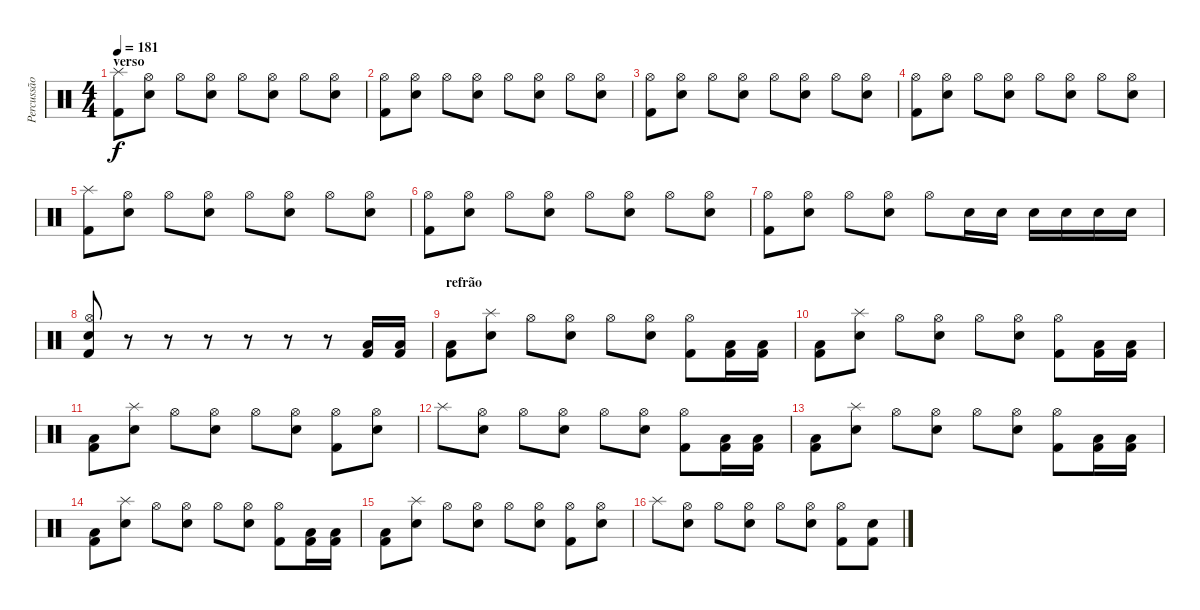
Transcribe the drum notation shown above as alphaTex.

\track ("Percussão" "Percussão") {instrument percussion}
\staff {score}
\articulation defaults
\ts (4 4)
\section ("" "verso")
\tempo 181
\clef neutral
\ks c
("Splash (hit)" "Kick (hit) 2").8{dy f} ("Hi-Hat (open)" "Snare (hit) 2").8 "Hi-Hat (open)".8 ("Hi-Hat (open)" "Snare (hit) 2").8 "Hi-Hat (open)".8 ("Hi-Hat (open)" "Snare (hit) 2").8 "Hi-Hat (open)".8 ("Hi-Hat (open)" "Snare (hit) 2").8 |
("Hi-Hat (open)" "Kick (hit) 2").8 ("Hi-Hat (open)" "Snare (hit) 2").8 "Hi-Hat (open)".8 ("Hi-Hat (open)" "Snare (hit) 2").8 "Hi-Hat (open)".8 ("Hi-Hat (open)" "Snare (hit) 2").8 "Hi-Hat (open)".8 ("Hi-Hat (open)" "Snare (hit) 2").8 |
("Hi-Hat (open)" "Kick (hit) 2").8 ("Hi-Hat (open)" "Snare (hit) 2").8 "Hi-Hat (open)".8 ("Hi-Hat (open)" "Snare (hit) 2").8 "Hi-Hat (open)".8 ("Hi-Hat (open)" "Snare (hit) 2").8 "Hi-Hat (open)".8 ("Hi-Hat (open)" "Snare (hit) 2").8 |
("Hi-Hat (open)" "Kick (hit) 2").8 ("Hi-Hat (open)" "Snare (hit) 2").8 "Hi-Hat (open)".8 ("Hi-Hat (open)" "Snare (hit) 2").8 "Hi-Hat (open)".8 ("Hi-Hat (open)" "Snare (hit) 2").8 "Hi-Hat (open)".8 ("Hi-Hat (open)" "Snare (hit) 2").8 |
("Splash (hit)" "Kick (hit) 2").8 ("Hi-Hat (open)" "Snare (hit) 2").8 "Hi-Hat (open)".8 ("Hi-Hat (open)" "Snare (hit) 2").8 "Hi-Hat (open)".8 ("Hi-Hat (open)" "Snare (hit) 2").8 "Hi-Hat (open)".8 ("Hi-Hat (open)" "Snare (hit) 2").8 |
("Hi-Hat (open)" "Kick (hit) 2").8 ("Hi-Hat (open)" "Snare (hit) 2").8 "Hi-Hat (open)".8 ("Hi-Hat (open)" "Snare (hit) 2").8 "Hi-Hat (open)".8 ("Hi-Hat (open)" "Snare (hit) 2").8 "Hi-Hat (open)".8 ("Hi-Hat (open)" "Snare (hit) 2").8 |
("Hi-Hat (open)" "Kick (hit) 2").8 ("Hi-Hat (open)" "Snare (hit) 2").8 "Hi-Hat (open)".8 ("Hi-Hat (open)" "Snare (hit) 2").8 "Hi-Hat (open)".8 "Snare (hit) 2".16 "Snare (hit) 2".16 "Snare (hit) 2".16 "Snare (hit) 2".16 "Snare (hit) 2".16 "Snare (hit) 2".16 |
("Hi-Hat (open)" "Snare (hit) 2" "Kick (hit) 2").8 r.8 r.8 r.8 r.8 r.8 r.8 ("Low Tom (hit)" "Kick (hit) 2").16 ("Low Tom (hit)" "Kick (hit) 2").16 |
\section ("" "refrão")
("Low Tom (hit)" "Kick (hit) 2").8 ("Splash (hit)" "Snare (hit) 2").8 "Hi-Hat (open)".8 ("Hi-Hat (open)" "Snare (hit) 2").8 "Hi-Hat (open)".8 ("Hi-Hat (open)" "Snare (hit) 2").8 ("Hi-Hat (open)" "Kick (hit) 2").8 ("Low Tom (hit)" "Kick (hit) 2").16 ("Low Tom (hit)" "Kick (hit) 2").16 |
("Low Tom (hit)" "Kick (hit) 2").8 ("Splash (hit)" "Snare (hit) 2").8 "Hi-Hat (open)".8 ("Hi-Hat (open)" "Snare (hit) 2").8 "Hi-Hat (open)".8 ("Hi-Hat (open)" "Snare (hit) 2").8 ("Hi-Hat (open)" "Kick (hit) 2").8 ("Low Tom (hit)" "Kick (hit) 2").16 ("Low Tom (hit)" "Kick (hit) 2").16 |
("Low Tom (hit)" "Kick (hit) 2").8 ("Splash (hit)" "Snare (hit) 2").8 "Hi-Hat (open)".8 ("Hi-Hat (open)" "Snare (hit) 2").8 "Hi-Hat (open)".8 ("Hi-Hat (open)" "Snare (hit) 2").8 ("Hi-Hat (open)" "Kick (hit) 2").8 ("Hi-Hat (open)" "Snare (hit) 2").8 |
"Splash (hit)".8 ("Hi-Hat (open)" "Snare (hit) 2").8 "Hi-Hat (open)".8 ("Hi-Hat (open)" "Snare (hit) 2").8 "Hi-Hat (open)".8 ("Hi-Hat (open)" "Snare (hit) 2").8 ("Hi-Hat (open)" "Kick (hit) 2").8 ("Low Tom (hit)" "Kick (hit) 2").16 ("Low Tom (hit)" "Kick (hit) 2").16 |
("Low Tom (hit)" "Kick (hit) 2").8 ("Splash (hit)" "Snare (hit) 2").8 "Hi-Hat (open)".8 ("Hi-Hat (open)" "Snare (hit) 2").8 "Hi-Hat (open)".8 ("Hi-Hat (open)" "Snare (hit) 2").8 ("Hi-Hat (open)" "Kick (hit) 2").8 ("Low Tom (hit)" "Kick (hit) 2").16 ("Low Tom (hit)" "Kick (hit) 2").16 |
("Low Tom (hit)" "Kick (hit) 2").8 ("Splash (hit)" "Snare (hit) 2").8 "Hi-Hat (open)".8 ("Hi-Hat (open)" "Snare (hit) 2").8 "Hi-Hat (open)".8 ("Hi-Hat (open)" "Snare (hit) 2").8 ("Hi-Hat (open)" "Kick (hit) 2").8 ("Low Tom (hit)" "Kick (hit) 2").16 ("Low Tom (hit)" "Kick (hit) 2").16 |
("Low Tom (hit)" "Kick (hit) 2").8 ("Splash (hit)" "Snare (hit) 2").8 "Hi-Hat (open)".8 ("Hi-Hat (open)" "Snare (hit) 2").8 "Hi-Hat (open)".8 ("Hi-Hat (open)" "Snare (hit) 2").8 ("Hi-Hat (open)" "Kick (hit) 2").8 ("Hi-Hat (open)" "Snare (hit) 2").8 |
"Splash (hit)".8 ("Hi-Hat (open)" "Snare (hit) 2").8 "Hi-Hat (open)".8 ("Hi-Hat (open)" "Snare (hit) 2").8 "Hi-Hat (open)".8 ("Hi-Hat (open)" "Snare (hit) 2").8 ("Hi-Hat (open)" "Kick (hit) 2").8 ("Kick (hit) 2" "Snare (hit) 2").8
